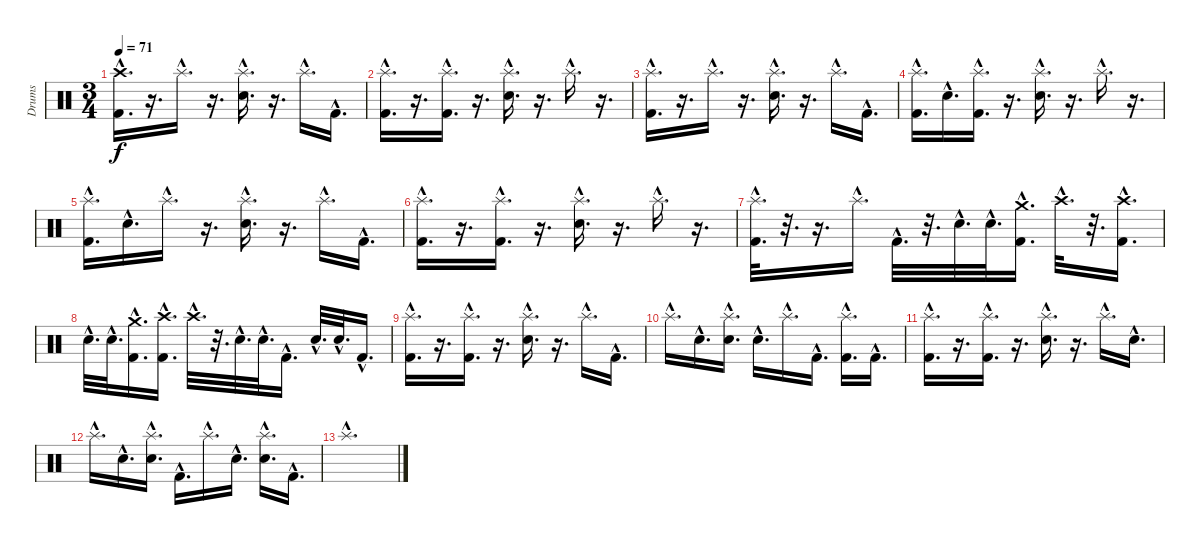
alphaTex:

\track ("Drums" "Drums") {instrument percussion}
\staff {score}
\articulation defaults
\ts (3 4)
\tempo 71
\clef neutral
\ks c
("Crash high (hit)"{hac} "Kick (hit) 2"{hac}).16{d dy f} r.16{d} "Splash (hit)"{hac}.16{d} r.16{d} ("Splash (hit)"{hac} "Snare (hit) 2"{hac}).16{d} r.16{d} "Splash (hit)"{hac}.16{d} "Kick (hit) 2"{hac}.16{d} |
("Splash (hit)"{hac} "Kick (hit) 2"{hac}).16{d} r.16{d} ("Splash (hit)"{hac} "Kick (hit) 2"{hac}).16{d} r.16{d} ("Splash (hit)"{hac} "Snare (hit) 2"{hac}).16{d} r.16{d} "Splash (hit)"{hac}.16{d} r.16{d} |
("Splash (hit)"{hac} "Kick (hit) 2"{hac}).16{d} r.16{d} "Splash (hit)"{hac}.16{d} r.16{d} ("Splash (hit)"{hac} "Snare (hit) 2"{hac}).16{d} r.16{d} "Splash (hit)"{hac}.16{d} "Kick (hit) 2"{hac}.16{d} |
("Splash (hit)"{hac} "Kick (hit) 2"{hac}).16{d} "Snare (hit) 2"{hac}.16{d} ("Splash (hit)"{hac} "Kick (hit) 2"{hac}).16{d} r.16{d} ("Splash (hit)"{hac} "Snare (hit) 2"{hac}).16{d} r.16{d} "Splash (hit)"{hac}.16{d} r.16{d} |
("Splash (hit)"{hac} "Kick (hit) 2"{hac}).16{d} "Snare (hit) 2"{hac}.16{d} "Splash (hit)"{hac}.16{d} r.16{d} ("Splash (hit)"{hac} "Snare (hit) 2"{hac}).16{d} r.16{d} "Splash (hit)"{hac}.16{d} "Kick (hit) 2"{hac}.16{d} |
("Splash (hit)"{hac} "Kick (hit) 2"{hac}).16{d} r.16{d} ("Splash (hit)"{hac} "Kick (hit) 2"{hac}).16{d} r.16{d} ("Splash (hit)"{hac} "Snare (hit) 2"{hac}).16{d} r.16{d} "Splash (hit)"{hac}.16{d} r.16{d} |
("Splash (hit)"{hac} "Kick (hit) 2"{hac}).32{d} r.32{d} r.16{d} "Splash (hit)"{hac}.16{d} "Kick (hit) 2"{hac}.32{d} r.32{d} "Snare (hit) 2"{hac}.32{d} "Snare (hit) 2"{hac}.32{d} ("Crash medium (hit)"{hac} "Kick (hit) 2"{hac}).16{d} "Crash high (hit)"{hac}.32{d} r.32{d} ("Crash high (hit)"{hac} "Kick (hit) 2"{hac}).16{d} |
"Snare (hit) 2"{hac}.32{d} "Snare (hit) 2"{hac}.32{d} ("Crash medium (hit)"{hac} "Kick (hit) 2"{hac}).16{d} ("Crash high (hit)"{hac} "Kick (hit) 2"{hac}).16{d} "Crash high (hit)"{hac}.32{d} r.32{d} "Snare (hit) 2"{hac}.32{d} "Snare (hit) 2"{hac}.32{d} "Kick (hit) 2"{hac}.16{d} "Snare (hit) 2"{hac}.32{d} "Snare (hit) 2"{hac}.32{d} "Kick (hit) 2"{hac}.16{d} |
("Splash (hit)"{hac} "Kick (hit) 2"{hac}).16{d} r.16{d} ("Splash (hit)"{hac} "Kick (hit) 2"{hac}).16{d} r.16{d} ("Splash (hit)"{hac} "Snare (hit) 2"{hac}).16{d} r.16{d} "Splash (hit)"{hac}.16{d} "Kick (hit) 2"{hac}.16{d} |
"Splash (hit)"{hac}.16{d} "Snare (hit) 2"{hac}.16{d} ("Splash (hit)"{hac} "Snare (hit) 2"{hac}).16{d} "Snare (hit) 2"{hac}.16{d} "Splash (hit)"{hac}.16{d} "Kick (hit) 2"{hac}.16{d} ("Splash (hit)"{hac} "Kick (hit) 2"{hac}).16{d} "Kick (hit) 2"{hac}.16{d} |
("Splash (hit)"{hac} "Kick (hit) 2"{hac}).16{d} r.16{d} ("Splash (hit)"{hac} "Kick (hit) 2"{hac}).16{d} r.16{d} ("Splash (hit)"{hac} "Snare (hit) 2"{hac}).16{d} r.16{d} "Splash (hit)"{hac}.16{d} "Snare (hit) 2"{hac}.16{d} |
"Splash (hit)"{hac}.16{d} "Snare (hit) 2"{hac}.16{d} ("Splash (hit)"{hac} "Snare (hit) 2"{hac}).16{d} "Kick (hit) 2"{hac}.16{d} "Splash (hit)"{hac}.16{d} "Snare (hit) 2"{hac}.16{d} ("Splash (hit)"{hac} "Snare (hit) 2"{hac}).16{d} "Kick (hit) 2"{hac}.16{d} |
"Splash (hit)"{hac}.1{d}
